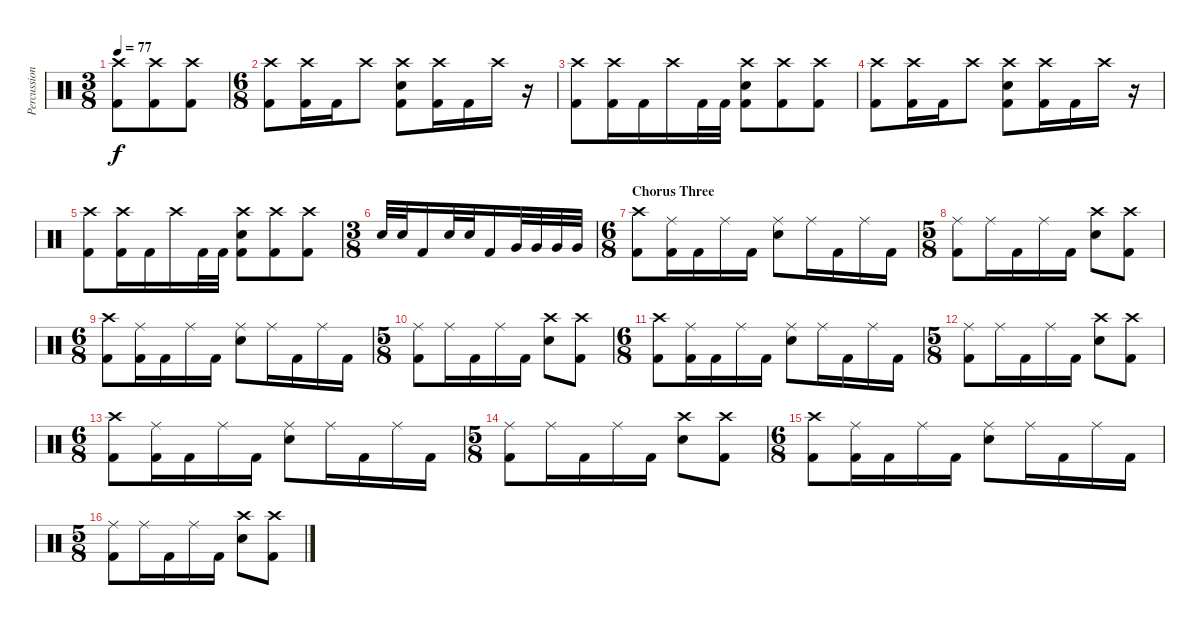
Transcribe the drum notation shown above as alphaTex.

\track ("Percussion" "Percussion") {instrument percussion}
\staff {score}
\articulation defaults
\ts (3 8)
\tempo 77
\clef neutral
\ks c
("Crash high (hit)" "Kick (hit) 2").8{dy f} ("Crash high (hit)" "Kick (hit) 2").8 ("Crash high (hit)" "Kick (hit) 2").8 |
\ts (6 8)
("Crash high (hit)" "Kick (hit) 2").8 ("Crash high (hit)" "Kick (hit) 2").16 "Kick (hit) 2".16 "Crash high (hit)".8 ("Crash high (hit)" "Electric Snare (hit)" "Kick (hit) 2").8 ("Crash high (hit)" "Kick (hit) 2").16 "Kick (hit) 2".16 "Crash high (hit)".16 r.16 |
("Crash high (hit)" "Kick (hit) 2").8 ("Crash high (hit)" "Kick (hit) 2").16 "Kick (hit) 2".16 "Crash high (hit)".16 "Kick (hit) 2".32 "Kick (hit) 2".32 ("Crash high (hit)" "Electric Snare (hit)" "Kick (hit) 2").8 ("Crash high (hit)" "Kick (hit) 2").8 ("Crash high (hit)" "Kick (hit) 2").8 |
("Crash high (hit)" "Kick (hit) 2").8 ("Crash high (hit)" "Kick (hit) 2").16 "Kick (hit) 2".16 "Crash high (hit)".8 ("Crash high (hit)" "Electric Snare (hit)" "Kick (hit) 2").8 ("Crash high (hit)" "Kick (hit) 2").16 "Kick (hit) 2".16 "Crash high (hit)".16 r.16 |
("Crash high (hit)" "Kick (hit) 2").8 ("Crash high (hit)" "Kick (hit) 2").16 "Kick (hit) 2".16 "Crash high (hit)".16 "Kick (hit) 2".32 "Kick (hit) 2".32 ("Crash high (hit)" "Electric Snare (hit)" "Kick (hit) 2").8 ("Crash high (hit)" "Kick (hit) 2").8 ("Crash high (hit)" "Kick (hit) 2").8 |
\ts (3 8)
"Electric Snare (hit)".32 "Electric Snare (hit)".32 "Kick (hit) 2".16 "Electric Snare (hit)".32 "Electric Snare (hit)".32 "Kick (hit) 2".16 "Very Low Tom (hit)".32 "Very Low Tom (hit)".32 "Very Low Tom (hit)".32 "Very Low Tom (hit)".32 |
\ts (6 8)
\section ("" "Chorus Three")
("Crash high (hit)" "Kick (hit) 2").8 ("Ride (middle)" "Kick (hit) 2").16 "Kick (hit) 2".16 "Ride (middle)".16 "Kick (hit) 2".16 ("Ride (middle)" "Electric Snare (hit)").8 "Ride (middle)".16 "Kick (hit) 2".16 "Ride (middle)".16 "Kick (hit) 2".16 |
\ts (5 8)
("Ride (middle)" "Kick (hit) 2").8 "Ride (middle)".16 "Kick (hit) 2".16 "Ride (middle)".16 "Kick (hit) 2".16 ("Crash high (hit)" "Electric Snare (hit)").8 ("Crash high (hit)" "Kick (hit) 2").8 |
\ts (6 8)
("Crash high (hit)" "Kick (hit) 2").8 ("Ride (middle)" "Kick (hit) 2").16 "Kick (hit) 2".16 "Ride (middle)".16 "Kick (hit) 2".16 ("Ride (middle)" "Electric Snare (hit)").8 "Ride (middle)".16 "Kick (hit) 2".16 "Ride (middle)".16 "Kick (hit) 2".16 |
\ts (5 8)
("Ride (middle)" "Kick (hit) 2").8 "Ride (middle)".16 "Kick (hit) 2".16 "Ride (middle)".16 "Kick (hit) 2".16 ("Crash high (hit)" "Electric Snare (hit)").8 ("Crash high (hit)" "Kick (hit) 2").8 |
\ts (6 8)
("Crash high (hit)" "Kick (hit) 2").8 ("Ride (middle)" "Kick (hit) 2").16 "Kick (hit) 2".16 "Ride (middle)".16 "Kick (hit) 2".16 ("Ride (middle)" "Electric Snare (hit)").8 "Ride (middle)".16 "Kick (hit) 2".16 "Ride (middle)".16 "Kick (hit) 2".16 |
\ts (5 8)
("Ride (middle)" "Kick (hit) 2").8 "Ride (middle)".16 "Kick (hit) 2".16 "Ride (middle)".16 "Kick (hit) 2".16 ("Crash high (hit)" "Electric Snare (hit)").8 ("Crash high (hit)" "Kick (hit) 2").8 |
\ts (6 8)
("Crash high (hit)" "Kick (hit) 2").8 ("Ride (middle)" "Kick (hit) 2").16 "Kick (hit) 2".16 "Ride (middle)".16 "Kick (hit) 2".16 ("Ride (middle)" "Electric Snare (hit)").8 "Ride (middle)".16 "Kick (hit) 2".16 "Ride (middle)".16 "Kick (hit) 2".16 |
\ts (5 8)
("Ride (middle)" "Kick (hit) 2").8 "Ride (middle)".16 "Kick (hit) 2".16 "Ride (middle)".16 "Kick (hit) 2".16 ("Crash high (hit)" "Electric Snare (hit)").8 ("Crash high (hit)" "Kick (hit) 2").8 |
\ts (6 8)
("Crash high (hit)" "Kick (hit) 2").8 ("Ride (middle)" "Kick (hit) 2").16 "Kick (hit) 2".16 "Ride (middle)".16 "Kick (hit) 2".16 ("Ride (middle)" "Electric Snare (hit)").8 "Ride (middle)".16 "Kick (hit) 2".16 "Ride (middle)".16 "Kick (hit) 2".16 |
\ts (5 8)
("Ride (middle)" "Kick (hit) 2").8 "Ride (middle)".16 "Kick (hit) 2".16 "Ride (middle)".16 "Kick (hit) 2".16 ("Crash high (hit)" "Electric Snare (hit)").8 ("Crash high (hit)" "Kick (hit) 2").8
